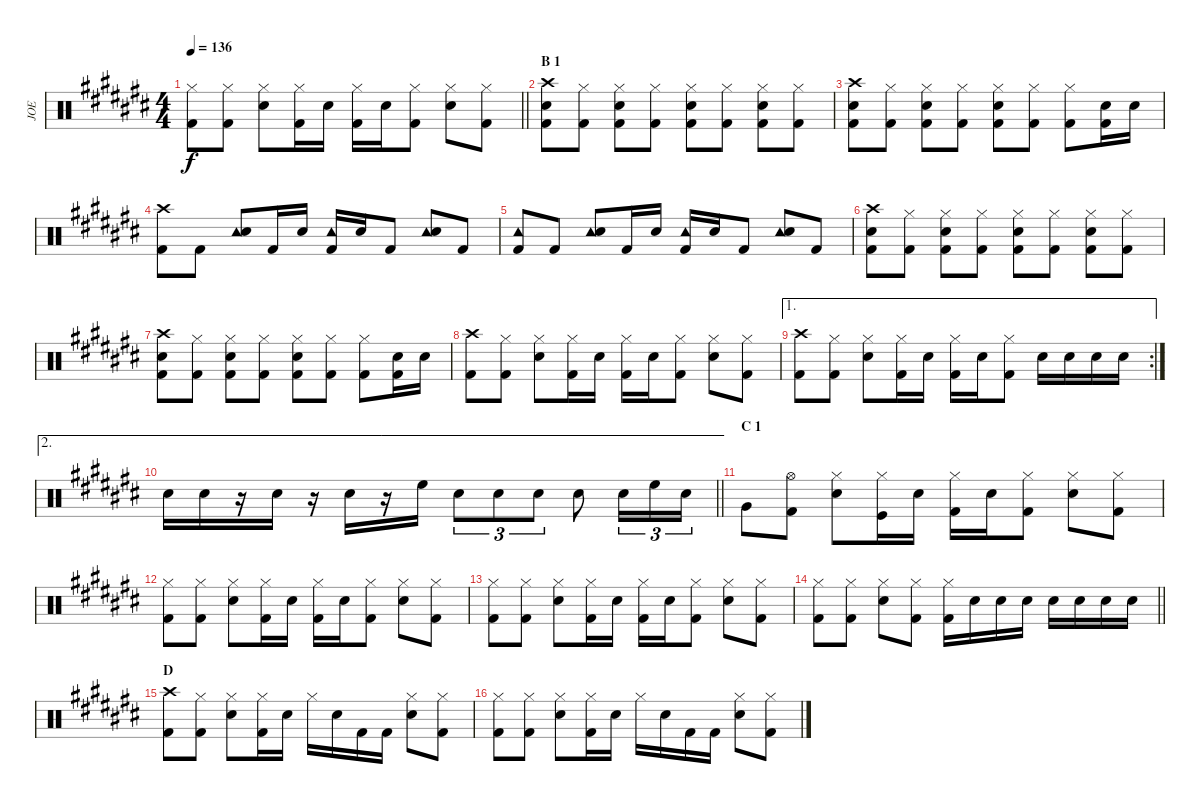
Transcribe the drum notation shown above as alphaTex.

\track ("JOE" "JOE") {instrument percussion}
\staff {score}
\articulation defaults
\ts (4 4)
\tempo 136
\clef neutral
\barLineRight lightlight
\ks c#
("Hi-Hat (closed)" "Kick (hit) 2").8{dy f} ("Hi-Hat (closed)" "Kick (hit) 2").8 ("Hi-Hat (closed)" "Snare (hit) 2").8 ("Hi-Hat (closed)" "Kick (hit) 2").16 "Snare (hit) 2".16 ("Hi-Hat (closed)" "Kick (hit) 2").16 "Snare (hit) 2".16 ("Hi-Hat (closed)" "Kick (hit) 2").8 ("Hi-Hat (closed)" "Snare (hit) 2").8 ("Hi-Hat (closed)" "Kick (hit) 2").8 |
\section ("" "B 1")
("Crash high (hit)" "Snare (hit) 2" "Kick (hit) 2").8 ("Hi-Hat (closed)" "Kick (hit) 2").8 ("Hi-Hat (closed)" "Snare (hit) 2" "Kick (hit) 2").8 ("Hi-Hat (closed)" "Kick (hit) 2").8 ("Hi-Hat (closed)" "Snare (hit) 2" "Kick (hit) 2").8 ("Hi-Hat (closed)" "Kick (hit) 2").8 ("Hi-Hat (closed)" "Snare (hit) 2" "Kick (hit) 2").8 ("Hi-Hat (closed)" "Kick (hit) 2").8 |
("Crash high (hit)" "Snare (hit) 2" "Kick (hit) 2").8 ("Hi-Hat (closed)" "Kick (hit) 2").8 ("Hi-Hat (closed)" "Snare (hit) 2" "Kick (hit) 2").8 ("Hi-Hat (closed)" "Kick (hit) 2").8 ("Hi-Hat (closed)" "Snare (hit) 2" "Kick (hit) 2").8 ("Hi-Hat (closed)" "Kick (hit) 2").8 ("Hi-Hat (closed)" "Kick (hit) 2").8 ("Snare (hit) 2" "Kick (hit) 2").16 "Snare (hit) 2".16 |
("Crash high (hit)" "Kick (hit) 2").8 "Kick (hit) 2".8 ("Tambourine (hit)" "Snare (hit) 2").8 "Kick (hit) 2".16 "Snare (hit) 2".16 ("Tambourine (hit)" "Kick (hit) 2").16 "Snare (hit) 2".16 "Kick (hit) 2".8 ("Tambourine (hit)" "Snare (hit) 2").8 "Kick (hit) 2".8 |
("Tambourine (hit)" "Kick (hit) 2").8 "Kick (hit) 2".8 ("Tambourine (hit)" "Snare (hit) 2").8 "Kick (hit) 2".16 "Snare (hit) 2".16 ("Tambourine (hit)" "Kick (hit) 2").16 "Snare (hit) 2".16 "Kick (hit) 2".8 ("Tambourine (hit)" "Snare (hit) 2").8 "Kick (hit) 2".8 |
("Crash high (hit)" "Snare (hit) 2" "Kick (hit) 2").8 ("Hi-Hat (closed)" "Kick (hit) 2").8 ("Hi-Hat (closed)" "Snare (hit) 2" "Kick (hit) 2").8 ("Hi-Hat (closed)" "Kick (hit) 2").8 ("Hi-Hat (closed)" "Snare (hit) 2" "Kick (hit) 2").8 ("Hi-Hat (closed)" "Kick (hit) 2").8 ("Hi-Hat (closed)" "Snare (hit) 2" "Kick (hit) 2").8 ("Hi-Hat (closed)" "Kick (hit) 2").8 |
("Crash high (hit)" "Snare (hit) 2" "Kick (hit) 2").8 ("Hi-Hat (closed)" "Kick (hit) 2").8 ("Hi-Hat (closed)" "Snare (hit) 2" "Kick (hit) 2").8 ("Hi-Hat (closed)" "Kick (hit) 2").8 ("Hi-Hat (closed)" "Snare (hit) 2" "Kick (hit) 2").8 ("Hi-Hat (closed)" "Kick (hit) 2").8 ("Hi-Hat (closed)" "Kick (hit) 2").8 ("Snare (hit) 2" "Kick (hit) 2").16 "Snare (hit) 2".16 |
("Crash high (hit)" "Kick (hit) 2").8 ("Hi-Hat (closed)" "Kick (hit) 2").8 ("Hi-Hat (closed)" "Snare (hit) 2").8 ("Hi-Hat (closed)" "Kick (hit) 2").16 "Snare (hit) 2".16 ("Hi-Hat (closed)" "Kick (hit) 2").16 "Snare (hit) 2".16 ("Hi-Hat (closed)" "Kick (hit) 2").8 ("Hi-Hat (closed)" "Snare (hit) 2").8 ("Hi-Hat (closed)" "Kick (hit) 2").8 |
\ae 1
\rc 2
("Crash high (hit)" "Kick (hit) 2").8 ("Hi-Hat (closed)" "Kick (hit) 2").8 ("Hi-Hat (closed)" "Snare (hit) 2").8 ("Hi-Hat (closed)" "Kick (hit) 2").16 "Snare (hit) 2".16 ("Hi-Hat (closed)" "Kick (hit) 2").16 "Snare (hit) 2".16 ("Hi-Hat (closed)" "Kick (hit) 2").8 "Snare (hit) 2".16 "Snare (hit) 2".16 "Snare (hit) 2".16 "Snare (hit) 2".16 |
\ae 2
\barLineRight lightlight "Snare (hit) 2".16 "Snare (hit) 2".16
r.16 "Snare (hit) 2".16 r.16 "Snare (hit) 2".16 r.16 "High Floor Tom (hit)".16 "Snare (hit) 2".8{tu (3 2)} "Snare (hit) 2".8{tu (3 2)} "Snare (hit) 2".8{tu (3 2)} "Snare (hit) 2".8 "Snare (hit) 2".16{tu (3 2)} "High Floor Tom (hit)".16{tu (3 2)} "Snare (hit) 2".16{tu (3 2)} |
\section ("" "C 1")
"Very Low Tom (hit)".8 ("Hi-Hat (open)" "Kick (hit) 2").8 ("Hi-Hat (closed)" "Snare (hit) 2").8 ("Hi-Hat (closed)" "Kick (hit)").16 "Snare (hit) 2".16 ("Hi-Hat (closed)" "Kick (hit) 2").16 "Snare (hit) 2".16 ("Hi-Hat (closed)" "Kick (hit) 2").8 ("Hi-Hat (closed)" "Snare (hit) 2").8 ("Hi-Hat (closed)" "Kick (hit) 2").8 |
("Hi-Hat (closed)" "Kick (hit) 2").8 ("Hi-Hat (closed)" "Kick (hit) 2").8 ("Hi-Hat (closed)" "Snare (hit) 2").8 ("Hi-Hat (closed)" "Kick (hit) 2").16 "Snare (hit) 2".16 ("Hi-Hat (closed)" "Kick (hit) 2").16 "Snare (hit) 2".16 ("Hi-Hat (closed)" "Kick (hit) 2").8 ("Hi-Hat (closed)" "Snare (hit) 2").8 ("Hi-Hat (closed)" "Kick (hit) 2").8 |
("Hi-Hat (closed)" "Kick (hit) 2").8 ("Hi-Hat (closed)" "Kick (hit) 2").8 ("Hi-Hat (closed)" "Snare (hit) 2").8 ("Hi-Hat (closed)" "Kick (hit) 2").16 "Snare (hit) 2".16 ("Hi-Hat (closed)" "Kick (hit) 2").16 "Snare (hit) 2".16 ("Hi-Hat (closed)" "Kick (hit) 2").8 ("Hi-Hat (closed)" "Snare (hit) 2").8 ("Hi-Hat (closed)" "Kick (hit) 2").8 |
\barLineRight lightlight
("Hi-Hat (closed)" "Kick (hit) 2").8 ("Hi-Hat (closed)" "Kick (hit) 2").8 ("Hi-Hat (closed)" "Snare (hit) 2").8 ("Hi-Hat (closed)" "Kick (hit) 2").8 ("Hi-Hat (closed)" "Kick (hit) 2").16 "Snare (hit) 2".16 "Snare (hit) 2".16 "Snare (hit) 2".16 "Snare (hit) 2".16 "Snare (hit) 2".16 "Snare (hit) 2".16 "Snare (hit) 2".16 |
\section ("" "D")
("Crash high (hit)" "Kick (hit) 2").8 ("Hi-Hat (closed)" "Kick (hit) 2").8 ("Hi-Hat (closed)" "Snare (hit) 2").8 ("Hi-Hat (closed)" "Kick (hit) 2").16 "Snare (hit) 2".16 "Hi-Hat (closed)".16 "Snare (hit) 2".16 "Kick (hit) 2".16 "Kick (hit) 2".16 ("Hi-Hat (closed)" "Snare (hit) 2").8 ("Hi-Hat (closed)" "Kick (hit) 2").8 |
("Hi-Hat (closed)" "Kick (hit) 2").8 ("Hi-Hat (closed)" "Kick (hit) 2").8 ("Hi-Hat (closed)" "Snare (hit) 2").8 ("Hi-Hat (closed)" "Kick (hit) 2").16 "Snare (hit) 2".16 "Hi-Hat (closed)".16 "Snare (hit) 2".16 "Kick (hit) 2".16 "Kick (hit) 2".16 ("Hi-Hat (closed)" "Snare (hit) 2").8 ("Hi-Hat (closed)" "Kick (hit) 2").8
